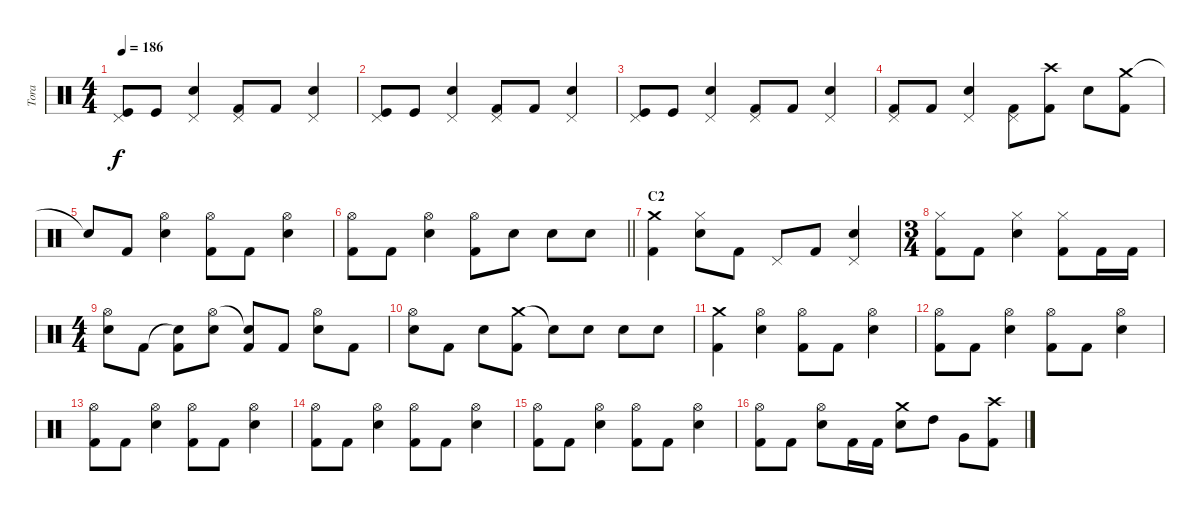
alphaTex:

\track ("Tora" "Tora") {instrument percussion}
\staff {score}
\articulation defaults
\ts (4 4)
\tempo 186
\clef neutral
\ks c
("Pedal Hi-Hat (hit)" "Kick (hit)").8{dy f} "Kick (hit)".8 ("Pedal Hi-Hat (hit)" "Electric Snare (hit)").4 ("Pedal Hi-Hat (hit)" "Kick (hit) 2").8 "Kick (hit) 2".8 ("Pedal Hi-Hat (hit)" "Electric Snare (hit)").4 |
("Pedal Hi-Hat (hit)" "Kick (hit)").8 "Kick (hit)".8 ("Pedal Hi-Hat (hit)" "Electric Snare (hit)").4 ("Pedal Hi-Hat (hit)" "Kick (hit) 2").8 "Kick (hit) 2".8 ("Pedal Hi-Hat (hit)" "Electric Snare (hit)").4 |
("Pedal Hi-Hat (hit)" "Kick (hit)").8 "Kick (hit)".8 ("Pedal Hi-Hat (hit)" "Electric Snare (hit)").4 ("Pedal Hi-Hat (hit)" "Kick (hit) 2").8 "Kick (hit) 2".8 ("Pedal Hi-Hat (hit)" "Electric Snare (hit)").4 |
("Pedal Hi-Hat (hit)" "Kick (hit) 2").8 "Kick (hit) 2".8 ("Pedal Hi-Hat (hit)" "Electric Snare (hit)").4 ("Pedal Hi-Hat (hit)" "Kick (hit) 2").8 ("Crash high (hit)" "Kick (hit) 2").8 "Electric Snare (hit)".8 ("Crash medium (hit)" "Kick (hit) 2").8 |
"Snare (hit)"{t}.8 "Kick (hit) 2".8 ("Hi-Hat (open)" "Electric Snare (hit)").4 ("Hi-Hat (open)" "Kick (hit) 2").8 "Kick (hit) 2".8 ("Hi-Hat (open)" "Electric Snare (hit)").4 |
\barLineRight lightlight
("Hi-Hat (open)" "Kick (hit) 2").8 "Kick (hit) 2".8 ("Hi-Hat (open)" "Electric Snare (hit)").4 ("Hi-Hat (open)" "Kick (hit) 2").8 "Electric Snare (hit)".8 "Electric Snare (hit)".8 "Electric Snare (hit)".8 |
\section ("" "C2")
("Crash medium (hit)" "Kick (hit) 2").4 ("Hi-Hat (closed)" "Electric Snare (hit)").8 "Kick (hit) 2".8 "Pedal Hi-Hat (hit)".8 "Kick (hit) 2".8 ("Pedal Hi-Hat (hit)" "Electric Snare (hit)").4 |
\ts (3 4)
("Hi-Hat (closed)" "Kick (hit) 2").8 "Kick (hit) 2".8 ("Hi-Hat (closed)" "Electric Snare (hit)").4 ("Hi-Hat (closed)" "Kick (hit) 2").8 "Kick (hit) 2".16 "Kick (hit) 2".16 |
\ts (4 4)
("Hi-Hat (open)" "Electric Snare (hit)").8 "Kick (hit) 2".8 ("Snare (hit)"{t} "Kick (hit) 2").8 ("Hi-Hat (open)" "Electric Snare (hit)").8 ("Snare (hit)"{t} "Kick (hit) 2").8 "Kick (hit) 2".8 ("Hi-Hat (open)" "Electric Snare (hit)").8 "Kick (hit) 2".8 |
("Hi-Hat (open)" "Electric Snare (hit)").8 "Kick (hit) 2".8 "Electric Snare (hit)".8 ("Crash medium (hit)" "Kick (hit) 2").8 "Snare (hit)"{t}.8 "Electric Snare (hit)".8 "Electric Snare (hit)".8 "Electric Snare (hit)".8 |
("Crash medium (hit)" "Kick (hit) 2").4 ("Hi-Hat (open)" "Electric Snare (hit)").4 ("Hi-Hat (open)" "Kick (hit) 2").8 "Kick (hit) 2".8 ("Hi-Hat (open)" "Electric Snare (hit)").4 |
("Hi-Hat (open)" "Kick (hit) 2").8 "Kick (hit) 2".8 ("Hi-Hat (open)" "Electric Snare (hit)").4 ("Hi-Hat (open)" "Kick (hit) 2").8 "Kick (hit) 2".8 ("Hi-Hat (open)" "Electric Snare (hit)").4 |
("Hi-Hat (open)" "Kick (hit) 2").8 "Kick (hit) 2".8 ("Hi-Hat (open)" "Electric Snare (hit)").4 ("Hi-Hat (open)" "Kick (hit) 2").8 "Kick (hit) 2".8 ("Hi-Hat (open)" "Electric Snare (hit)").4 |
("Hi-Hat (open)" "Kick (hit) 2").8 "Kick (hit) 2".8 ("Hi-Hat (open)" "Electric Snare (hit)").4 ("Hi-Hat (open)" "Kick (hit) 2").8 "Kick (hit) 2".8 ("Hi-Hat (open)" "Electric Snare (hit)").4 |
("Hi-Hat (open)" "Kick (hit) 2").8 "Kick (hit) 2".8 ("Hi-Hat (open)" "Electric Snare (hit)").4 ("Hi-Hat (open)" "Kick (hit) 2").8 "Kick (hit) 2".8 ("Hi-Hat (open)" "Electric Snare (hit)").4 |
("Hi-Hat (open)" "Kick (hit) 2").8 "Kick (hit) 2".8 ("Hi-Hat (open)" "Electric Snare (hit)").8 "Kick (hit) 2".16 "Kick (hit) 2".16 ("Crash medium (hit)" "Electric Snare (hit)").8 "High Tom (hit)".8 "Very Low Tom (hit)".8 ("Crash high (hit)" "Kick (hit) 2").8
